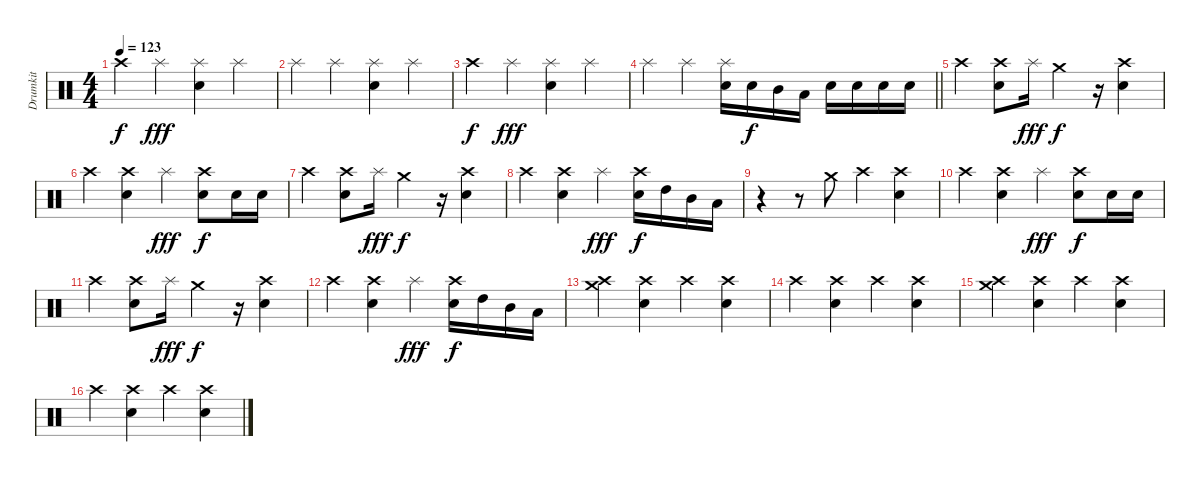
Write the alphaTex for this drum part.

\track ("Drumkit" "Drumkit") {instrument percussion}
\staff {score}
\articulation defaults
\ts (4 4)
\tempo 123
\clef neutral
\ks c "Crash high (hit)".4{dy f} "Splash (hit)".4{dy fff}
("Splash (hit)" "Electric Snare (hit)").4 "Splash (hit)".4 |
"Splash (hit)".4 "Splash (hit)".4 ("Splash (hit)" "Electric Snare (hit)").4 "Splash (hit)".4 |
"Crash high (hit)".4{dy f} "Splash (hit)".4{dy fff} ("Splash (hit)" "Electric Snare (hit)").4 "Splash (hit)".4 |
\barLineRight lightlight "Splash (hit)".4 "Splash (hit)".4
("Splash (hit)" "Electric Snare (hit)").16 "Electric Snare (hit)".16{dy f} "Mid Tom (hit)".16 "Low Tom (hit)".16 "Electric Snare (hit)".16 "Electric Snare (hit)".16 "Electric Snare (hit)".16 "Electric Snare (hit)".16 |
"Crash high (hit)".4 ("Crash high (hit)" "Electric Snare (hit)").8 "Splash (hit)".16{dy fff} "Crash medium (hit)".4{dy f} r.16 ("Crash high (hit)" "Electric Snare (hit)").4 |
"Crash high (hit)".4 ("Crash high (hit)" "Electric Snare (hit)").4 "Splash (hit)".4{dy fff} ("Crash high (hit)" "Electric Snare (hit)").8{dy f} "Electric Snare (hit)".16 "Electric Snare (hit)".16 |
"Crash high (hit)".4 ("Crash high (hit)" "Electric Snare (hit)").8 "Splash (hit)".16{dy fff} "Crash medium (hit)".4{dy f} r.16 ("Crash high (hit)" "Electric Snare (hit)").4 |
"Crash high (hit)".4 ("Crash high (hit)" "Electric Snare (hit)").4 "Splash (hit)".4{dy fff} ("Crash high (hit)" "Electric Snare (hit)").16{dy f} "High Tom (hit)".16 "Mid Tom (hit)".16 "Low Tom (hit)".16 |
r.4 r.8 "Crash medium (hit)".8 "Crash high (hit)".4 ("Crash high (hit)" "Electric Snare (hit)").4 |
"Crash high (hit)".4 ("Crash high (hit)" "Electric Snare (hit)").4 "Splash (hit)".4{dy fff} ("Crash high (hit)" "Electric Snare (hit)").8{dy f} "Electric Snare (hit)".16 "Electric Snare (hit)".16 |
"Crash high (hit)".4 ("Crash high (hit)" "Electric Snare (hit)").8 "Splash (hit)".16{dy fff} "Crash medium (hit)".4{dy f} r.16 ("Crash high (hit)" "Electric Snare (hit)").4 |
"Crash high (hit)".4 ("Crash high (hit)" "Electric Snare (hit)").4 "Splash (hit)".4{dy fff} ("Crash high (hit)" "Electric Snare (hit)").16{dy f} "High Tom (hit)".16 "Mid Tom (hit)".16 "Low Tom (hit)".16 |
("Crash medium (hit)" "Crash high (hit)").4 ("Crash high (hit)" "Electric Snare (hit)").4 "Crash high (hit)".4 ("Crash high (hit)" "Electric Snare (hit)").4 |
"Crash high (hit)".4 ("Crash high (hit)" "Electric Snare (hit)").4 "Crash high (hit)".4 ("Crash high (hit)" "Electric Snare (hit)").4 |
("Crash medium (hit)" "Crash high (hit)").4 ("Crash high (hit)" "Electric Snare (hit)").4 "Crash high (hit)".4 ("Crash high (hit)" "Electric Snare (hit)").4 |
"Crash high (hit)".4 ("Crash high (hit)" "Electric Snare (hit)").4 "Crash high (hit)".4 ("Crash high (hit)" "Electric Snare (hit)").4
